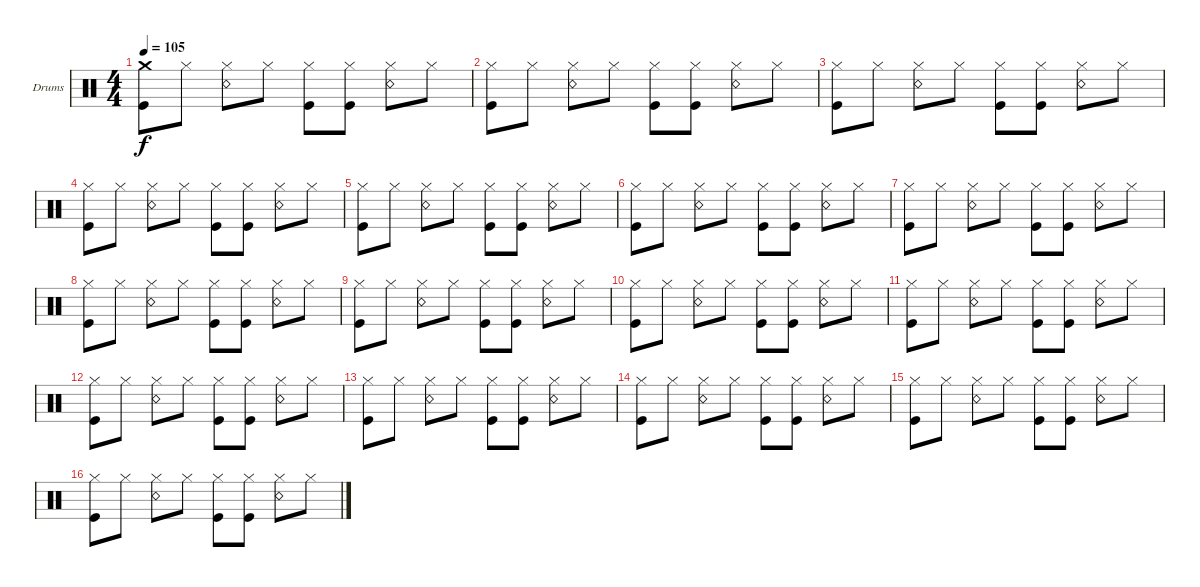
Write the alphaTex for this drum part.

\defaultSystemsLayout 4
\bracketExtendMode groupsimilarinstruments
\firstSystemTrackNameOrientation horizontal
\otherSystemsTrackNameOrientation horizontal
\track ("Drumkit" "Drums") {instrument percussion}
\staff {score}
\articulation defaults
\ts (4 4)
\tempo 105
\clef neutral
\scale
0.472222
\ks c
("Kick (hit)" "Crash medium (hit)").8{dy f} "Hi-Hat (closed)".8 ("Hi-Hat (closed)" "Snare (rim shot)").8 "Hi-Hat (closed)".8 ("Hi-Hat (closed)" "Kick (hit)").8 ("Hi-Hat (closed)" "Kick (hit)").8 ("Hi-Hat (closed)" "Snare (rim shot)").8 "Hi-Hat (closed)".8 |
\scale
0.263889 ("Hi-Hat (closed)" "Kick (hit)").8 "Hi-Hat (closed)".8 ("Hi-Hat (closed)" "Snare (rim shot)").8 "Hi-Hat (closed)".8 ("Hi-Hat (closed)" "Kick (hit)").8 ("Hi-Hat (closed)" "Kick (hit)").8 ("Hi-Hat (closed)" "Snare (rim shot)").8 "Hi-Hat (closed)".8 |
\scale
0.263889 ("Hi-Hat (closed)" "Kick (hit)").8 "Hi-Hat (closed)".8 ("Hi-Hat (closed)" "Snare (rim shot)").8 "Hi-Hat (closed)".8 ("Hi-Hat (closed)" "Kick (hit)").8 ("Hi-Hat (closed)" "Kick (hit)").8 ("Hi-Hat (closed)" "Snare (rim shot)").8 "Hi-Hat (closed)".8 |
\scale
0.333333 ("Hi-Hat (closed)" "Kick (hit)").8 "Hi-Hat (closed)".8 ("Hi-Hat (closed)" "Snare (rim shot)").8 "Hi-Hat (closed)".8 ("Hi-Hat (closed)" "Kick (hit)").8 ("Hi-Hat (closed)" "Kick (hit)").8 ("Hi-Hat (closed)" "Snare (rim shot)").8 "Hi-Hat (closed)".8 |
\scale
0.333333 ("Hi-Hat (closed)" "Kick (hit)").8 "Hi-Hat (closed)".8 ("Hi-Hat (closed)" "Snare (rim shot)").8 "Hi-Hat (closed)".8 ("Hi-Hat (closed)" "Kick (hit)").8 ("Hi-Hat (closed)" "Kick (hit)").8 ("Hi-Hat (closed)" "Snare (rim shot)").8 "Hi-Hat (closed)".8 |
\scale
0.333333 ("Hi-Hat (closed)" "Kick (hit)").8 "Hi-Hat (closed)".8 ("Hi-Hat (closed)" "Snare (rim shot)").8 "Hi-Hat (closed)".8 ("Hi-Hat (closed)" "Kick (hit)").8 ("Hi-Hat (closed)" "Kick (hit)").8 ("Hi-Hat (closed)" "Snare (rim shot)").8 "Hi-Hat (closed)".8 |
\scale
0.333333 ("Hi-Hat (closed)" "Kick (hit)").8 "Hi-Hat (closed)".8 ("Hi-Hat (closed)" "Snare (rim shot)").8 "Hi-Hat (closed)".8 ("Hi-Hat (closed)" "Kick (hit)").8 ("Hi-Hat (closed)" "Kick (hit)").8 ("Hi-Hat (closed)" "Snare (rim shot)").8 "Hi-Hat (closed)".8 |
\scale
0.333333 ("Hi-Hat (closed)" "Kick (hit)").8 "Hi-Hat (closed)".8 ("Hi-Hat (closed)" "Snare (rim shot)").8 "Hi-Hat (closed)".8 ("Hi-Hat (closed)" "Kick (hit)").8 ("Hi-Hat (closed)" "Kick (hit)").8 ("Hi-Hat (closed)" "Snare (rim shot)").8 "Hi-Hat (closed)".8 |
\scale
0.333333 ("Hi-Hat (closed)" "Kick (hit)").8 "Hi-Hat (closed)".8 ("Hi-Hat (closed)" "Snare (rim shot)").8 "Hi-Hat (closed)".8 ("Hi-Hat (closed)" "Kick (hit)").8 ("Hi-Hat (closed)" "Kick (hit)").8 ("Hi-Hat (closed)" "Snare (rim shot)").8 "Hi-Hat (closed)".8 |
\scale
0.333333 ("Hi-Hat (closed)" "Kick (hit)").8 "Hi-Hat (closed)".8 ("Hi-Hat (closed)" "Snare (rim shot)").8 "Hi-Hat (closed)".8 ("Hi-Hat (closed)" "Kick (hit)").8 ("Hi-Hat (closed)" "Kick (hit)").8 ("Hi-Hat (closed)" "Snare (rim shot)").8 "Hi-Hat (closed)".8 |
\scale
0.333333 ("Hi-Hat (closed)" "Kick (hit)").8 "Hi-Hat (closed)".8 ("Hi-Hat (closed)" "Snare (rim shot)").8 "Hi-Hat (closed)".8 ("Hi-Hat (closed)" "Kick (hit)").8 ("Hi-Hat (closed)" "Kick (hit)").8 ("Hi-Hat (closed)" "Snare (rim shot)").8 "Hi-Hat (closed)".8 |
\scale
0.333333 ("Hi-Hat (closed)" "Kick (hit)").8 "Hi-Hat (closed)".8 ("Hi-Hat (closed)" "Snare (rim shot)").8 "Hi-Hat (closed)".8 ("Hi-Hat (closed)" "Kick (hit)").8 ("Hi-Hat (closed)" "Kick (hit)").8 ("Hi-Hat (closed)" "Snare (rim shot)").8 "Hi-Hat (closed)".8 |
\scale
0.333333 ("Hi-Hat (closed)" "Kick (hit)").8 "Hi-Hat (closed)".8 ("Hi-Hat (closed)" "Snare (rim shot)").8 "Hi-Hat (closed)".8 ("Hi-Hat (closed)" "Kick (hit)").8 ("Hi-Hat (closed)" "Kick (hit)").8 ("Hi-Hat (closed)" "Snare (rim shot)").8 "Hi-Hat (closed)".8 |
\scale
0.333333 ("Hi-Hat (closed)" "Kick (hit)").8 "Hi-Hat (closed)".8 ("Hi-Hat (closed)" "Snare (rim shot)").8 "Hi-Hat (closed)".8 ("Hi-Hat (closed)" "Kick (hit)").8 ("Hi-Hat (closed)" "Kick (hit)").8 ("Hi-Hat (closed)" "Snare (rim shot)").8 "Hi-Hat (closed)".8 |
\scale
0.333333 ("Hi-Hat (closed)" "Kick (hit)").8 "Hi-Hat (closed)".8 ("Hi-Hat (closed)" "Snare (rim shot)").8 "Hi-Hat (closed)".8 ("Hi-Hat (closed)" "Kick (hit)").8 ("Hi-Hat (closed)" "Kick (hit)").8 ("Hi-Hat (closed)" "Snare (rim shot)").8 "Hi-Hat (closed)".8 |
\scale
0.333333 ("Hi-Hat (closed)" "Kick (hit)").8 "Hi-Hat (closed)".8 ("Hi-Hat (closed)" "Snare (rim shot)").8 "Hi-Hat (closed)".8 ("Hi-Hat (closed)" "Kick (hit)").8 ("Hi-Hat (closed)" "Kick (hit)").8 ("Hi-Hat (closed)" "Snare (rim shot)").8 "Hi-Hat (closed)".8
